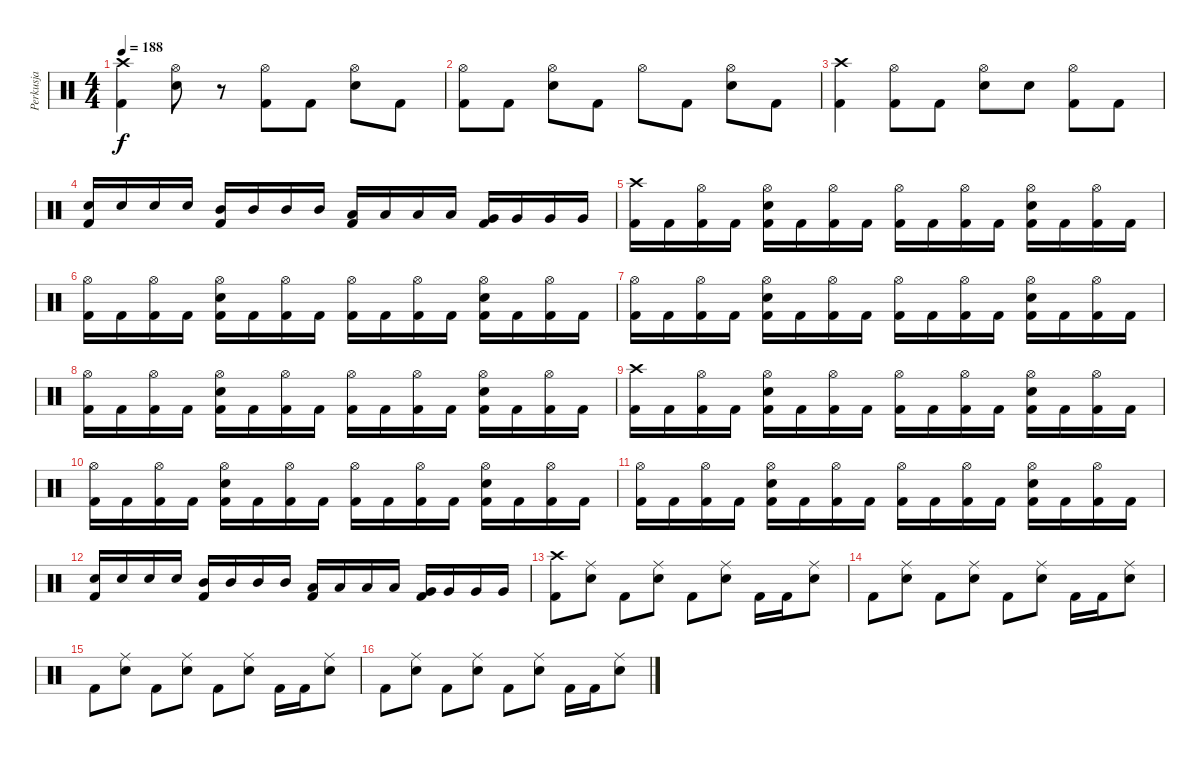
\track ("Perkusja" "Perkusja") {instrument percussion}
\staff {score}
\articulation defaults
\ts (4 4)
\tempo 188
\clef neutral
\ks c
("Crash high (hit)" "Kick (hit) 2").4{dy f} ("Hi-Hat (open)" "Electric Snare (hit)").8 r.8 ("Hi-Hat (open)" "Kick (hit) 2").8 "Kick (hit) 2".8 ("Hi-Hat (open)" "Electric Snare (hit)").8 "Kick (hit) 2".8 |
("Hi-Hat (open)" "Kick (hit) 2").8 "Kick (hit) 2".8 ("Hi-Hat (open)" "Electric Snare (hit)").8 "Kick (hit) 2".8 "Hi-Hat (open)".8 "Kick (hit) 2".8 ("Hi-Hat (open)" "Electric Snare (hit)").8 "Kick (hit) 2".8 |
("Crash high (hit)" "Kick (hit) 2").4 ("Hi-Hat (open)" "Kick (hit) 2").8 "Kick (hit) 2".8 ("Hi-Hat (open)" "Electric Snare (hit)").8 "Electric Snare (hit)".8 ("Hi-Hat (open)" "Kick (hit) 2").8 "Kick (hit) 2".8 |
("Electric Snare (hit)" "Kick (hit) 2").16 "Electric Snare (hit)".16 "Electric Snare (hit)".16 "Electric Snare (hit)".16 ("Mid Tom (hit)" "Kick (hit) 2").16 "Mid Tom (hit)".16 "Mid Tom (hit)".16 "Mid Tom (hit)".16 ("Low Tom (hit)" "Kick (hit) 2").16 "Low Tom (hit)".16 "Low Tom (hit)".16 "Low Tom (hit)".16 ("Very Low Tom (hit)" "Kick (hit) 2").16 "Very Low Tom (hit)".16 "Very Low Tom (hit)".16 "Very Low Tom (hit)".16 |
("Crash high (hit)" "Kick (hit) 2").16 "Kick (hit) 2".16 ("Hi-Hat (open)" "Kick (hit) 2").16 "Kick (hit) 2".16 ("Hi-Hat (open)" "Electric Snare (hit)" "Kick (hit) 2").16 "Kick (hit) 2".16 ("Hi-Hat (open)" "Kick (hit) 2").16 "Kick (hit) 2".16 ("Hi-Hat (open)" "Kick (hit) 2").16 "Kick (hit) 2".16 ("Hi-Hat (open)" "Kick (hit) 2").16 "Kick (hit) 2".16 ("Hi-Hat (open)" "Electric Snare (hit)" "Kick (hit) 2").16 "Kick (hit) 2".16 ("Hi-Hat (open)" "Kick (hit) 2").16 "Kick (hit) 2".16 |
("Hi-Hat (open)" "Kick (hit) 2").16 "Kick (hit) 2".16 ("Hi-Hat (open)" "Kick (hit) 2").16 "Kick (hit) 2".16 ("Hi-Hat (open)" "Electric Snare (hit)" "Kick (hit) 2").16 "Kick (hit) 2".16 ("Hi-Hat (open)" "Kick (hit) 2").16 "Kick (hit) 2".16 ("Hi-Hat (open)" "Kick (hit) 2").16 "Kick (hit) 2".16 ("Hi-Hat (open)" "Kick (hit) 2").16 "Kick (hit) 2".16 ("Hi-Hat (open)" "Electric Snare (hit)" "Kick (hit) 2").16 "Kick (hit) 2".16 ("Hi-Hat (open)" "Kick (hit) 2").16 "Kick (hit) 2".16 |
("Hi-Hat (open)" "Kick (hit) 2").16 "Kick (hit) 2".16 ("Hi-Hat (open)" "Kick (hit) 2").16 "Kick (hit) 2".16 ("Hi-Hat (open)" "Electric Snare (hit)" "Kick (hit) 2").16 "Kick (hit) 2".16 ("Hi-Hat (open)" "Kick (hit) 2").16 "Kick (hit) 2".16 ("Hi-Hat (open)" "Kick (hit) 2").16 "Kick (hit) 2".16 ("Hi-Hat (open)" "Kick (hit) 2").16 "Kick (hit) 2".16 ("Hi-Hat (open)" "Electric Snare (hit)" "Kick (hit) 2").16 "Kick (hit) 2".16 ("Hi-Hat (open)" "Kick (hit) 2").16 "Kick (hit) 2".16 |
("Hi-Hat (open)" "Kick (hit) 2").16 "Kick (hit) 2".16 ("Hi-Hat (open)" "Kick (hit) 2").16 "Kick (hit) 2".16 ("Hi-Hat (open)" "Electric Snare (hit)" "Kick (hit) 2").16 "Kick (hit) 2".16 ("Hi-Hat (open)" "Kick (hit) 2").16 "Kick (hit) 2".16 ("Hi-Hat (open)" "Kick (hit) 2").16 "Kick (hit) 2".16 ("Hi-Hat (open)" "Kick (hit) 2").16 "Kick (hit) 2".16 ("Hi-Hat (open)" "Electric Snare (hit)" "Kick (hit) 2").16 "Kick (hit) 2".16 ("Hi-Hat (open)" "Kick (hit) 2").16 "Kick (hit) 2".16 |
("Crash high (hit)" "Kick (hit) 2").16 "Kick (hit) 2".16 ("Hi-Hat (open)" "Kick (hit) 2").16 "Kick (hit) 2".16 ("Hi-Hat (open)" "Electric Snare (hit)" "Kick (hit) 2").16 "Kick (hit) 2".16 ("Hi-Hat (open)" "Kick (hit) 2").16 "Kick (hit) 2".16 ("Hi-Hat (open)" "Kick (hit) 2").16 "Kick (hit) 2".16 ("Hi-Hat (open)" "Kick (hit) 2").16 "Kick (hit) 2".16 ("Hi-Hat (open)" "Electric Snare (hit)" "Kick (hit) 2").16 "Kick (hit) 2".16 ("Hi-Hat (open)" "Kick (hit) 2").16 "Kick (hit) 2".16 |
("Hi-Hat (open)" "Kick (hit) 2").16 "Kick (hit) 2".16 ("Hi-Hat (open)" "Kick (hit) 2").16 "Kick (hit) 2".16 ("Hi-Hat (open)" "Electric Snare (hit)" "Kick (hit) 2").16 "Kick (hit) 2".16 ("Hi-Hat (open)" "Kick (hit) 2").16 "Kick (hit) 2".16 ("Hi-Hat (open)" "Kick (hit) 2").16 "Kick (hit) 2".16 ("Hi-Hat (open)" "Kick (hit) 2").16 "Kick (hit) 2".16 ("Hi-Hat (open)" "Electric Snare (hit)" "Kick (hit) 2").16 "Kick (hit) 2".16 ("Hi-Hat (open)" "Kick (hit) 2").16 "Kick (hit) 2".16 |
("Hi-Hat (open)" "Kick (hit) 2").16 "Kick (hit) 2".16 ("Hi-Hat (open)" "Kick (hit) 2").16 "Kick (hit) 2".16 ("Hi-Hat (open)" "Electric Snare (hit)" "Kick (hit) 2").16 "Kick (hit) 2".16 ("Hi-Hat (open)" "Kick (hit) 2").16 "Kick (hit) 2".16 ("Hi-Hat (open)" "Kick (hit) 2").16 "Kick (hit) 2".16 ("Hi-Hat (open)" "Kick (hit) 2").16 "Kick (hit) 2".16 ("Hi-Hat (open)" "Electric Snare (hit)" "Kick (hit) 2").16 "Kick (hit) 2".16 ("Hi-Hat (open)" "Kick (hit) 2").16 "Kick (hit) 2".16 |
("Electric Snare (hit)" "Kick (hit) 2").16 "Electric Snare (hit)".16 "Electric Snare (hit)".16 "Electric Snare (hit)".16 ("Mid Tom (hit)" "Kick (hit) 2").16 "Mid Tom (hit)".16 "Mid Tom (hit)".16 "Mid Tom (hit)".16 ("Low Tom (hit)" "Kick (hit) 2").16 "Low Tom (hit)".16 "Low Tom (hit)".16 "Low Tom (hit)".16 ("Very Low Tom (hit)" "Kick (hit) 2").16 "Very Low Tom (hit)".16 "Very Low Tom (hit)".16 "Very Low Tom (hit)".16 |
("Crash high (hit)" "Kick (hit) 2").8 ("Ride (middle)" "Electric Snare (hit)").8 "Kick (hit) 2".8 ("Ride (middle)" "Electric Snare (hit)").8 "Kick (hit) 2".8 ("Ride (middle)" "Electric Snare (hit)").8 "Kick (hit) 2".16 "Kick (hit) 2".16 ("Ride (middle)" "Electric Snare (hit)").8 |
"Kick (hit) 2".8 ("Ride (middle)" "Electric Snare (hit)").8 "Kick (hit) 2".8 ("Ride (middle)" "Electric Snare (hit)").8 "Kick (hit) 2".8 ("Ride (middle)" "Electric Snare (hit)").8 "Kick (hit) 2".16 "Kick (hit) 2".16 ("Ride (middle)" "Electric Snare (hit)").8 |
"Kick (hit) 2".8 ("Ride (middle)" "Electric Snare (hit)").8 "Kick (hit) 2".8 ("Ride (middle)" "Electric Snare (hit)").8 "Kick (hit) 2".8 ("Ride (middle)" "Electric Snare (hit)").8 "Kick (hit) 2".16 "Kick (hit) 2".16 ("Ride (middle)" "Electric Snare (hit)").8 |
"Kick (hit) 2".8 ("Ride (middle)" "Electric Snare (hit)").8 "Kick (hit) 2".8 ("Ride (middle)" "Electric Snare (hit)").8 "Kick (hit) 2".8 ("Ride (middle)" "Electric Snare (hit)").8 "Kick (hit) 2".16 "Kick (hit) 2".16 ("Ride (middle)" "Electric Snare (hit)").8
